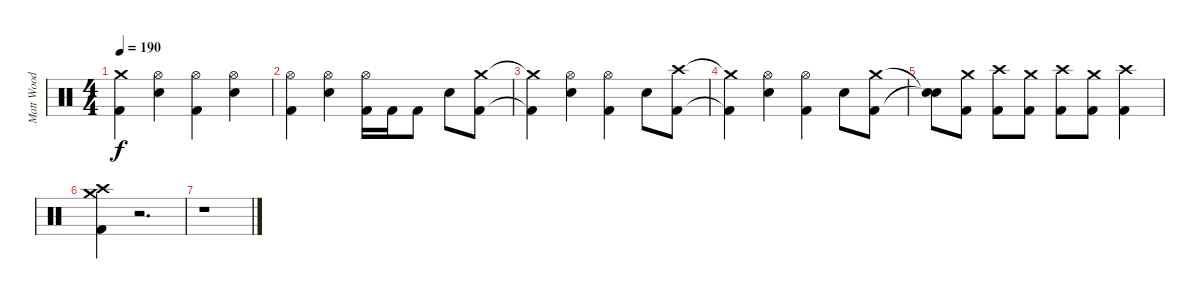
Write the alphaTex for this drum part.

\track ("Matt Wood" "Matt Wood") {instrument percussion}
\staff {score}
\articulation defaults
\ts (4 4)
\tempo 190
\clef neutral
\ks c
("Crash medium (hit)"{t} "Kick (hit) 2"{t}).4{dy f} ("Hi-Hat (open)" "Snare (hit) 2").4 ("Hi-Hat (open)" "Kick (hit) 2").4 ("Hi-Hat (open)" "Snare (hit) 2").4 |
("Hi-Hat (open)" "Kick (hit) 2").4 ("Hi-Hat (open)" "Snare (hit) 2").4 ("Hi-Hat (open)" "Kick (hit) 2").16 "Kick (hit) 2".16 "Kick (hit) 2".8 "Snare (hit) 2".8 ("Crash medium (hit)" "Kick (hit) 2").8 |
("Crash medium (hit)"{t} "Kick (hit) 2"{t}).4 ("Hi-Hat (open)" "Snare (hit) 2").4 ("Hi-Hat (open)" "Kick (hit) 2").4 "Snare (hit) 2".8 ("Crash high (hit)" "Kick (hit) 2").8 |
("Crash medium (hit)"{t} "Kick (hit) 2"{t}).4 ("Hi-Hat (open)" "Snare (hit) 2").4 ("Hi-Hat (open)" "Kick (hit) 2").4 "Snare (hit) 2".8 ("Crash medium (hit)" "Kick (hit) 2").8 |
("Snare (hit)"{t} "Snare (hit)"{t}).8 ("Crash medium (hit)" "Kick (hit) 2").8 ("Crash high (hit)" "Kick (hit) 2").8 ("Crash medium (hit)" "Kick (hit) 2").8 ("Crash high (hit)" "Kick (hit) 2").8 ("Crash medium (hit)" "Kick (hit) 2").8 ("Crash high (hit)" "Kick (hit) 2").4 |
("Crash medium (hit)" "Crash high (hit)" "Kick (hit) 2").4 r.2{d} |
r.1
